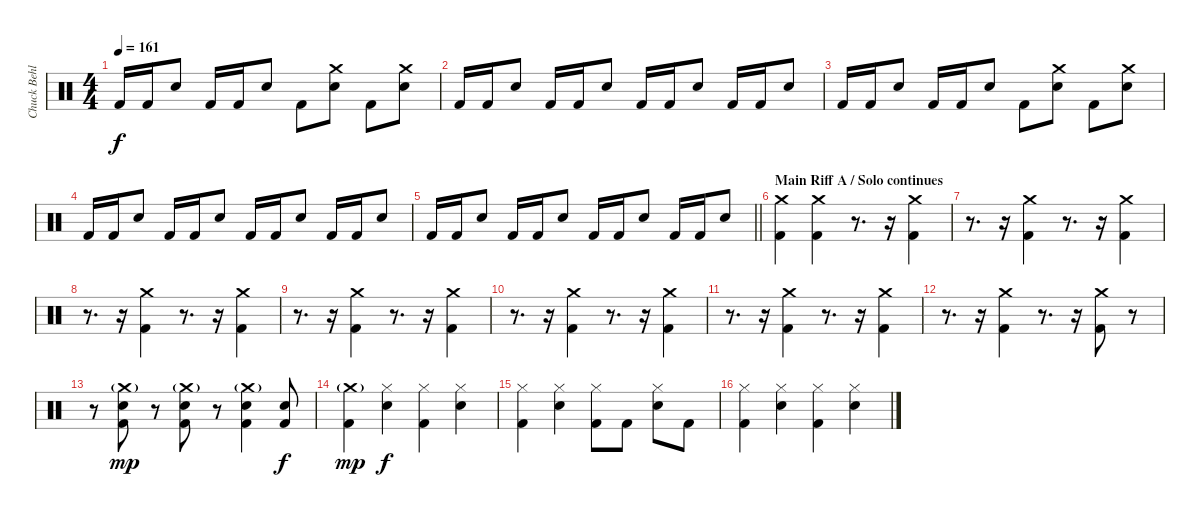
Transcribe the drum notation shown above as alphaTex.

\track ("Chuck Behler" "Chuck Behl") {instrument percussion}
\staff {score}
\articulation defaults
\ts (4 4)
\tempo 161
\clef neutral
\ks c "Kick (hit) 2".16{dy f} "Kick (hit) 2".16 "Snare (hit) 2".8 "Kick (hit) 2".16 "Kick (hit) 2".16 "Snare (hit) 2".8 "Kick (hit) 2".8
("Crash medium (hit)" "Snare (hit) 2").8 "Kick (hit) 2".8 ("Crash medium (hit)" "Snare (hit) 2").8 |
"Kick (hit) 2".16 "Kick (hit) 2".16 "Snare (hit) 2".8 "Kick (hit) 2".16 "Kick (hit) 2".16 "Snare (hit) 2".8 "Kick (hit) 2".16 "Kick (hit) 2".16 "Snare (hit) 2".8 "Kick (hit) 2".16 "Kick (hit) 2".16 "Snare (hit) 2".8 |
"Kick (hit) 2".16 "Kick (hit) 2".16 "Snare (hit) 2".8 "Kick (hit) 2".16 "Kick (hit) 2".16 "Snare (hit) 2".8 "Kick (hit) 2".8 ("Crash medium (hit)" "Snare (hit) 2").8 "Kick (hit) 2".8 ("Crash medium (hit)" "Snare (hit) 2").8 |
"Kick (hit) 2".16 "Kick (hit) 2".16 "Snare (hit) 2".8 "Kick (hit) 2".16 "Kick (hit) 2".16 "Snare (hit) 2".8 "Kick (hit) 2".16 "Kick (hit) 2".16 "Snare (hit) 2".8 "Kick (hit) 2".16 "Kick (hit) 2".16 "Snare (hit) 2".8 |
\barLineRight lightlight "Kick (hit) 2".16 "Kick (hit) 2".16 "Snare (hit) 2".8 "Kick (hit) 2".16 "Kick (hit) 2".16 "Snare (hit) 2".8 "Kick (hit) 2".16 "Kick (hit) 2".16 "Snare (hit) 2".8 "Kick (hit) 2".16 "Kick (hit) 2".16 "Snare (hit) 2".8
|
\section ("" "Main Riff A / Solo continues")
("Crash medium (hit)" "Kick (hit) 2").4 ("Crash medium (hit)" "Kick (hit) 2").4{volume 0} r.8{d} r.16{volume 16} ("Crash medium (hit)" "Kick (hit) 2").4{volume 0} |
r.8{d} r.16{volume 16} ("Crash medium (hit)" "Kick (hit) 2").4{volume 0} r.8{d} r.16{volume 16} ("Crash medium (hit)" "Kick (hit) 2").4{volume 0} |
r.8{d} r.16{volume 16} ("Crash medium (hit)" "Kick (hit) 2").4{volume 0} r.8{d} r.16{volume 16} ("Crash medium (hit)" "Kick (hit) 2").4{volume 0} |
r.8{d} r.16{volume 16} ("Crash medium (hit)" "Kick (hit) 2").4{volume 0} r.8{d} r.16{volume 16} ("Crash medium (hit)" "Kick (hit) 2").4{volume 0} |
r.8{d} r.16{volume 16} ("Crash medium (hit)" "Kick (hit) 2").4{volume 0} r.8{d} r.16{volume 16} ("Crash medium (hit)" "Kick (hit) 2").4{volume 0} |
r.8{d} r.16{volume 16} ("Crash medium (hit)" "Kick (hit) 2").4{volume 0} r.8{d} r.16{volume 16} ("Crash medium (hit)" "Kick (hit) 2").4{volume 0} |
r.8{d} r.16{volume 16} ("Crash medium (hit)" "Kick (hit) 2").4{volume 0} r.8{d} r.16{volume 16} ("Crash medium (hit)" "Kick (hit) 2").8{volume 7} r.8 |
r.8 ("Crash medium (hit)"{g} "Snare (hit) 2" "Kick (hit) 2").8{dy mp volume 16} r.8 ("Crash medium (hit)"{g} "Snare (hit) 2" "Kick (hit) 2").8{volume 16} r.8 ("Crash medium (hit)"{g} "Snare (hit) 2" "Kick (hit) 2").4{volume 16} ("Snare (hit) 2" "Kick (hit) 2").8{dy f} |
("Crash medium (hit)"{g} "Kick (hit) 2").4{dy mp} ("Hi-Hat (closed)" "Snare (hit) 2").4{dy f} ("Hi-Hat (closed)" "Kick (hit) 2").4 ("Hi-Hat (closed)" "Snare (hit) 2").4 |
("Hi-Hat (closed)" "Kick (hit) 2").4 ("Hi-Hat (closed)" "Snare (hit) 2").4 ("Hi-Hat (closed)" "Kick (hit) 2").8 "Kick (hit) 2".8 ("Hi-Hat (closed)" "Snare (hit) 2").8 "Kick (hit) 2".8 |
("Hi-Hat (closed)" "Kick (hit) 2").4 ("Hi-Hat (closed)" "Snare (hit) 2").4 ("Hi-Hat (closed)" "Kick (hit) 2").4 ("Hi-Hat (closed)" "Snare (hit) 2").4
